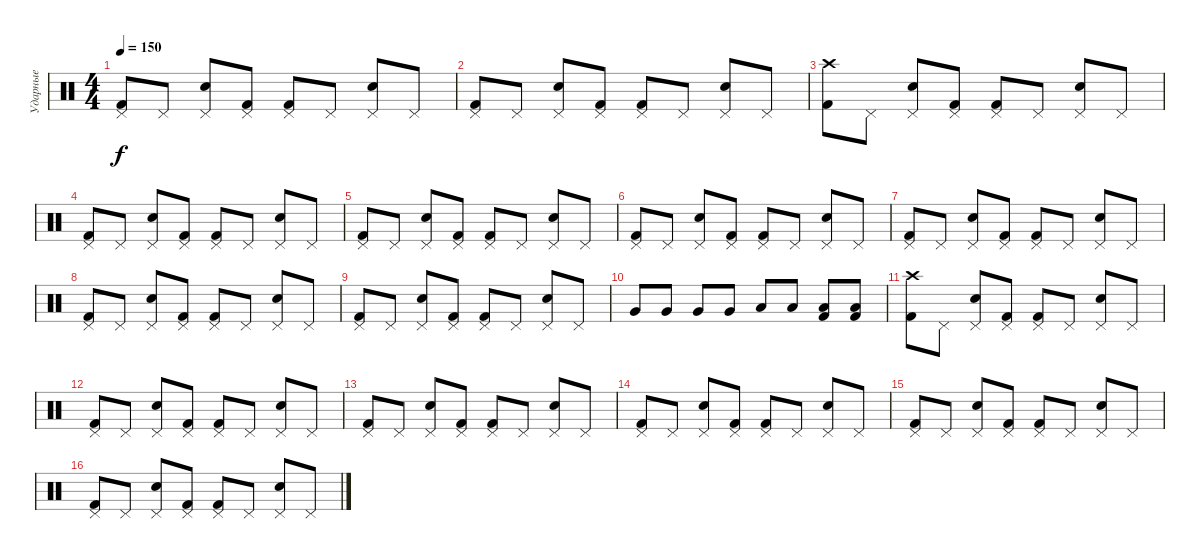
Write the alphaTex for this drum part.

\track ("Ударные" "Ударные") {instrument percussion}
\staff {score}
\articulation defaults
\ts (4 4)
\tempo 150
\clef neutral
\ks c
("Pedal Hi-Hat (hit)" "Kick (hit) 2").8{dy f} "Pedal Hi-Hat (hit)".8 ("Pedal Hi-Hat (hit)" "Snare (hit) 2").8 ("Pedal Hi-Hat (hit)" "Kick (hit) 2").8 ("Pedal Hi-Hat (hit)" "Kick (hit) 2").8 "Pedal Hi-Hat (hit)".8 ("Pedal Hi-Hat (hit)" "Snare (hit) 2").8 "Pedal Hi-Hat (hit)".8 |
("Pedal Hi-Hat (hit)" "Kick (hit) 2").8 "Pedal Hi-Hat (hit)".8 ("Pedal Hi-Hat (hit)" "Snare (hit) 2").8 ("Pedal Hi-Hat (hit)" "Kick (hit) 2").8 ("Pedal Hi-Hat (hit)" "Kick (hit) 2").8 "Pedal Hi-Hat (hit)".8 ("Pedal Hi-Hat (hit)" "Snare (hit) 2").8 "Pedal Hi-Hat (hit)".8 |
("Crash high (hit)" "Kick (hit) 2").8 "Pedal Hi-Hat (hit)".8 ("Pedal Hi-Hat (hit)" "Snare (hit) 2").8 ("Pedal Hi-Hat (hit)" "Kick (hit) 2").8 ("Pedal Hi-Hat (hit)" "Kick (hit) 2").8 "Pedal Hi-Hat (hit)".8 ("Pedal Hi-Hat (hit)" "Snare (hit) 2").8 "Pedal Hi-Hat (hit)".8 |
("Pedal Hi-Hat (hit)" "Kick (hit) 2").8 "Pedal Hi-Hat (hit)".8 ("Pedal Hi-Hat (hit)" "Snare (hit) 2").8 ("Pedal Hi-Hat (hit)" "Kick (hit) 2").8 ("Pedal Hi-Hat (hit)" "Kick (hit) 2").8 "Pedal Hi-Hat (hit)".8 ("Pedal Hi-Hat (hit)" "Snare (hit) 2").8 "Pedal Hi-Hat (hit)".8 |
("Pedal Hi-Hat (hit)" "Kick (hit) 2").8 "Pedal Hi-Hat (hit)".8 ("Pedal Hi-Hat (hit)" "Snare (hit) 2").8 ("Pedal Hi-Hat (hit)" "Kick (hit) 2").8 ("Pedal Hi-Hat (hit)" "Kick (hit) 2").8 "Pedal Hi-Hat (hit)".8 ("Pedal Hi-Hat (hit)" "Snare (hit) 2").8 "Pedal Hi-Hat (hit)".8 |
("Pedal Hi-Hat (hit)" "Kick (hit) 2").8 "Pedal Hi-Hat (hit)".8 ("Pedal Hi-Hat (hit)" "Snare (hit) 2").8 ("Pedal Hi-Hat (hit)" "Kick (hit) 2").8 ("Pedal Hi-Hat (hit)" "Kick (hit) 2").8 "Pedal Hi-Hat (hit)".8 ("Pedal Hi-Hat (hit)" "Snare (hit) 2").8 "Pedal Hi-Hat (hit)".8 |
("Pedal Hi-Hat (hit)" "Kick (hit) 2").8 "Pedal Hi-Hat (hit)".8 ("Pedal Hi-Hat (hit)" "Snare (hit) 2").8 ("Pedal Hi-Hat (hit)" "Kick (hit) 2").8 ("Pedal Hi-Hat (hit)" "Kick (hit) 2").8 "Pedal Hi-Hat (hit)".8 ("Pedal Hi-Hat (hit)" "Snare (hit) 2").8 "Pedal Hi-Hat (hit)".8 |
("Pedal Hi-Hat (hit)" "Kick (hit) 2").8 "Pedal Hi-Hat (hit)".8 ("Pedal Hi-Hat (hit)" "Snare (hit) 2").8 ("Pedal Hi-Hat (hit)" "Kick (hit) 2").8 ("Pedal Hi-Hat (hit)" "Kick (hit) 2").8 "Pedal Hi-Hat (hit)".8 ("Pedal Hi-Hat (hit)" "Snare (hit) 2").8 "Pedal Hi-Hat (hit)".8 |
("Pedal Hi-Hat (hit)" "Kick (hit) 2").8 "Pedal Hi-Hat (hit)".8 ("Pedal Hi-Hat (hit)" "Snare (hit) 2").8 ("Pedal Hi-Hat (hit)" "Kick (hit) 2").8 ("Pedal Hi-Hat (hit)" "Kick (hit) 2").8 "Pedal Hi-Hat (hit)".8 ("Pedal Hi-Hat (hit)" "Snare (hit) 2").8 "Pedal Hi-Hat (hit)".8 |
"Very Low Tom (hit)".8 "Very Low Tom (hit)".8 "Very Low Tom (hit)".8 "Very Low Tom (hit)".8 "Low Floor Tom (hit)".8 "Low Floor Tom (hit)".8 ("Low Floor Tom (hit)" "Kick (hit) 2").8 ("Low Floor Tom (hit)" "Kick (hit) 2").8 |
("Crash high (hit)" "Kick (hit) 2").8 "Pedal Hi-Hat (hit)".8 ("Pedal Hi-Hat (hit)" "Snare (hit) 2").8 ("Pedal Hi-Hat (hit)" "Kick (hit) 2").8 ("Pedal Hi-Hat (hit)" "Kick (hit) 2").8 "Pedal Hi-Hat (hit)".8 ("Pedal Hi-Hat (hit)" "Snare (hit) 2").8 "Pedal Hi-Hat (hit)".8 |
("Pedal Hi-Hat (hit)" "Kick (hit) 2").8 "Pedal Hi-Hat (hit)".8 ("Pedal Hi-Hat (hit)" "Snare (hit) 2").8 ("Pedal Hi-Hat (hit)" "Kick (hit) 2").8 ("Pedal Hi-Hat (hit)" "Kick (hit) 2").8 "Pedal Hi-Hat (hit)".8 ("Pedal Hi-Hat (hit)" "Snare (hit) 2").8 "Pedal Hi-Hat (hit)".8 |
("Pedal Hi-Hat (hit)" "Kick (hit) 2").8 "Pedal Hi-Hat (hit)".8 ("Pedal Hi-Hat (hit)" "Snare (hit) 2").8 ("Pedal Hi-Hat (hit)" "Kick (hit) 2").8 ("Pedal Hi-Hat (hit)" "Kick (hit) 2").8 "Pedal Hi-Hat (hit)".8 ("Pedal Hi-Hat (hit)" "Snare (hit) 2").8 "Pedal Hi-Hat (hit)".8 |
("Pedal Hi-Hat (hit)" "Kick (hit) 2").8 "Pedal Hi-Hat (hit)".8 ("Pedal Hi-Hat (hit)" "Snare (hit) 2").8 ("Pedal Hi-Hat (hit)" "Kick (hit) 2").8 ("Pedal Hi-Hat (hit)" "Kick (hit) 2").8 "Pedal Hi-Hat (hit)".8 ("Pedal Hi-Hat (hit)" "Snare (hit) 2").8 "Pedal Hi-Hat (hit)".8 |
("Pedal Hi-Hat (hit)" "Kick (hit) 2").8 "Pedal Hi-Hat (hit)".8 ("Pedal Hi-Hat (hit)" "Snare (hit) 2").8 ("Pedal Hi-Hat (hit)" "Kick (hit) 2").8 ("Pedal Hi-Hat (hit)" "Kick (hit) 2").8 "Pedal Hi-Hat (hit)".8 ("Pedal Hi-Hat (hit)" "Snare (hit) 2").8 "Pedal Hi-Hat (hit)".8 |
("Pedal Hi-Hat (hit)" "Kick (hit) 2").8 "Pedal Hi-Hat (hit)".8 ("Pedal Hi-Hat (hit)" "Snare (hit) 2").8 ("Pedal Hi-Hat (hit)" "Kick (hit) 2").8 ("Pedal Hi-Hat (hit)" "Kick (hit) 2").8 "Pedal Hi-Hat (hit)".8 ("Pedal Hi-Hat (hit)" "Snare (hit) 2").8 "Pedal Hi-Hat (hit)".8
